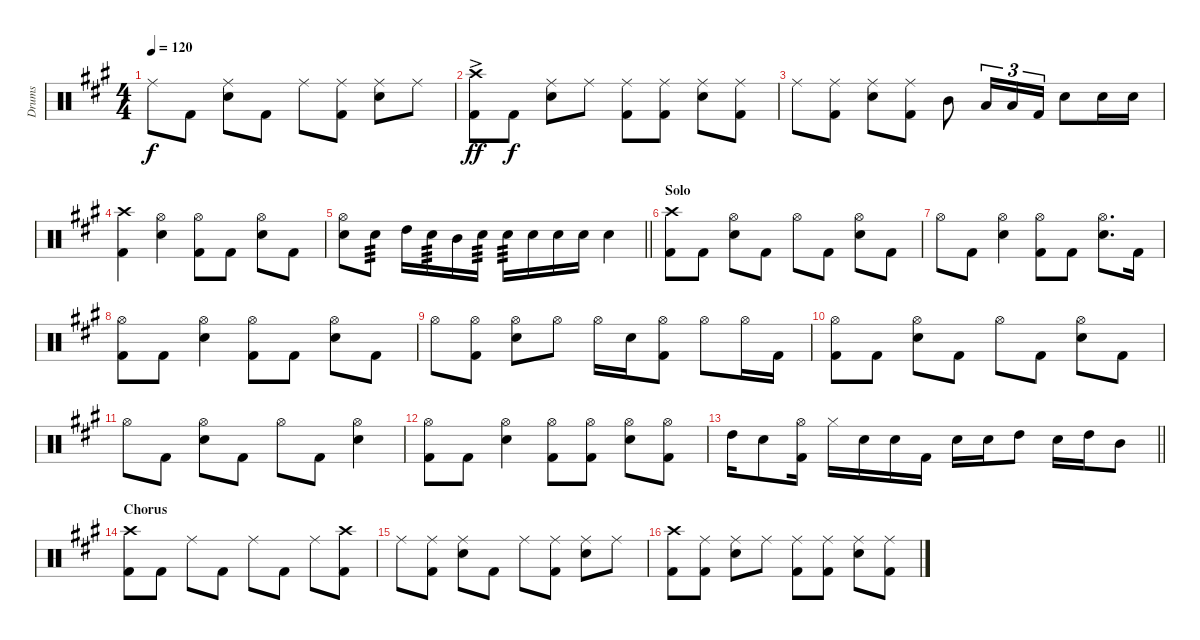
\track ("Drums" "Drums") {instrument percussion}
\staff {score}
\articulation defaults
\ts (4 4)
\tempo 120
\clef neutral
\ks a "Ride (middle)".8{dy f} "Kick (hit) 2".8
("Ride (middle)" "Snare (hit) 2").8 "Kick (hit) 2".8 "Ride (middle)".8 ("Ride (middle)" "Kick (hit) 2").8 ("Ride (middle)" "Snare (hit) 2").8 "Ride (middle)".8 |
("Crash high (hit)"{ac} "Kick (hit) 2").8{dy ff} "Kick (hit) 2".8{dy f} ("Ride (middle)" "Snare (hit) 2").8 "Ride (middle)".8 ("Ride (middle)" "Kick (hit) 2").8 ("Ride (middle)" "Kick (hit) 2").8 ("Ride (middle)" "Snare (hit) 2").8 ("Ride (middle)" "Kick (hit) 2").8 |
"Ride (middle)".8 ("Ride (middle)" "Kick (hit) 2").8 ("Ride (middle)" "Snare (hit) 2").8 ("Ride (middle)" "Kick (hit) 2").8 "Mid Tom (hit)".8 "Low Tom (hit)".16{tu (3 2)} "Low Tom (hit)".16{tu (3 2)} "Kick (hit) 2".16{tu (3 2)} "Snare (hit) 2".8 "Snare (hit) 2".16 "Snare (hit) 2".16 |
("Crash high (hit)" "Kick (hit) 2").4 ("Hi-Hat (open)" "Snare (hit) 2").4 ("Hi-Hat (open)" "Kick (hit) 2").8 "Kick (hit) 2".8 ("Hi-Hat (open)" "Snare (hit) 2").8 "Kick (hit) 2".8 |
\barLineRight lightlight
("Hi-Hat (open)" "Snare (hit) 2").8 "Snare (hit) 2".8{tp 3} "High Tom (hit)".16 "Snare (hit) 2".16{tp 3} "Mid Tom (hit)".16 "Snare (hit) 2".16{tp 3} "Snare (hit) 2".16{tp 3} "Snare (hit) 2".16 "Snare (hit) 2".16 "Snare (hit) 2".16 "Snare (hit) 2".4 |
\section ("" "Solo")
("Crash high (hit)" "Kick (hit) 2").8 "Kick (hit) 2".8 ("Hi-Hat (open)" "Snare (hit) 2").8 "Kick (hit) 2".8 "Hi-Hat (open)".8 "Kick (hit) 2".8 ("Hi-Hat (open)" "Snare (hit) 2").8 "Kick (hit) 2".8 |
"Hi-Hat (open)".8 "Kick (hit) 2".8 ("Hi-Hat (open)" "Snare (hit) 2").4 ("Hi-Hat (open)" "Kick (hit) 2").8 "Kick (hit) 2".8 ("Hi-Hat (open)" "Snare (hit) 2").8{d} "Kick (hit) 2".16 |
("Hi-Hat (open)" "Kick (hit) 2").8 "Kick (hit) 2".8 ("Hi-Hat (open)" "Snare (hit) 2").4 ("Hi-Hat (open)" "Kick (hit) 2").8 "Kick (hit) 2".8 ("Hi-Hat (open)" "Snare (hit) 2").8 "Kick (hit) 2".8 |
"Hi-Hat (open)".8 ("Hi-Hat (open)" "Kick (hit) 2").8 ("Hi-Hat (open)" "Snare (hit) 2").8 "Hi-Hat (open)".8 "Hi-Hat (open)".16 "Snare (hit) 2".16 ("Hi-Hat (open)" "Kick (hit) 2").8 "Hi-Hat (open)".8 "Hi-Hat (open)".16 "Kick (hit) 2".16 |
("Hi-Hat (open)" "Kick (hit) 2").8 "Kick (hit) 2".8 ("Hi-Hat (open)" "Snare (hit) 2").8 "Kick (hit) 2".8 "Hi-Hat (open)".8 "Kick (hit) 2".8 ("Hi-Hat (open)" "Snare (hit) 2").8 "Kick (hit) 2".8 |
"Hi-Hat (open)".8 "Kick (hit) 2".8 ("Hi-Hat (open)" "Snare (hit) 2").8 "Kick (hit) 2".8 "Hi-Hat (open)".8 "Kick (hit) 2".8 ("Hi-Hat (open)" "Snare (hit) 2").4 |
("Hi-Hat (open)" "Kick (hit) 2").8 "Kick (hit) 2".8 ("Hi-Hat (open)" "Snare (hit) 2").4 ("Hi-Hat (open)" "Kick (hit) 2").8 ("Hi-Hat (open)" "Kick (hit) 2").8 ("Hi-Hat (open)" "Snare (hit) 2").8 ("Hi-Hat (open)" "Kick (hit) 2").8 |
\barLineRight lightlight "High Tom (hit)".16 "Snare (hit) 2".8
("Hi-Hat (open)" "Kick (hit) 2").16 "Hi-Hat (closed)".16 "Snare (hit) 2".16 "Snare (hit) 2".16 "Kick (hit) 2".16 "Snare (hit) 2".16 "Snare (hit) 2".16 "High Tom (hit)".8 "Snare (hit) 2".16 "High Tom (hit)".16 "Mid Tom (hit)".8 |
\section ("" "Chorus")
("Crash high (hit)" "Kick (hit) 2").8 "Kick (hit) 2".8 "Ride (middle)".8 "Kick (hit) 2".8 "Ride (middle)".8 "Kick (hit) 2".8 "Ride (middle)".8 ("Crash high (hit)" "Kick (hit) 2").8 |
"Ride (middle)".8 ("Ride (middle)" "Kick (hit) 2").8 ("Ride (middle)" "Snare (hit) 2").8 "Kick (hit) 2".8 "Ride (middle)".8 ("Ride (middle)" "Kick (hit) 2").8 ("Ride (middle)" "Snare (hit) 2").8 "Ride (middle)".8 |
("Crash high (hit)" "Kick (hit) 2").8 ("Ride (middle)" "Kick (hit) 2").8 ("Ride (middle)" "Snare (hit) 2").8 "Ride (middle)".8 ("Ride (middle)" "Kick (hit) 2").8 ("Ride (middle)" "Kick (hit) 2").8 ("Ride (middle)" "Snare (hit) 2").8 ("Ride (middle)" "Kick (hit) 2").8
